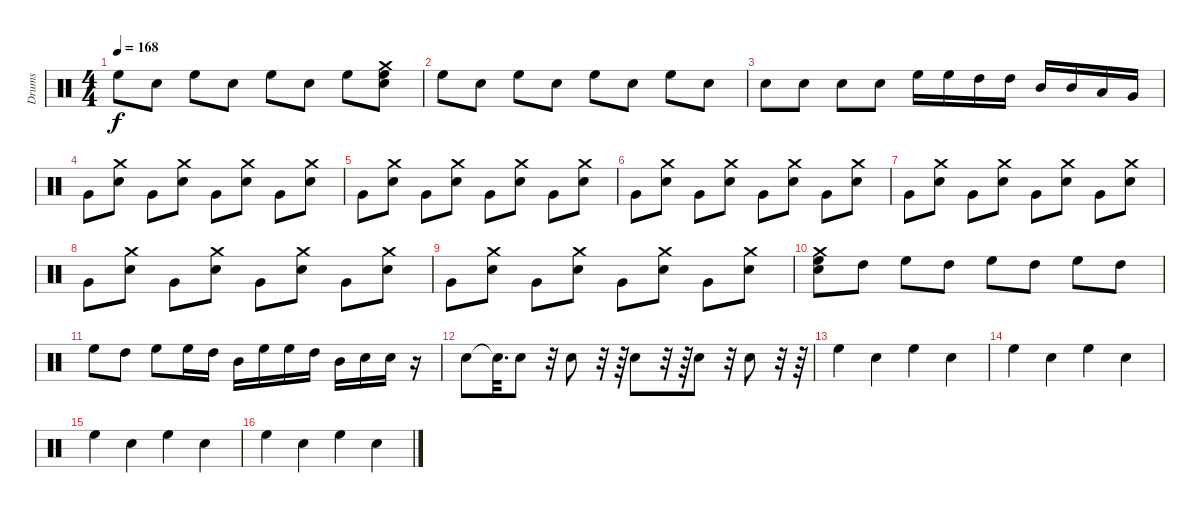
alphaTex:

\track ("Drums" "Drums") {instrument percussion}
\staff {score}
\articulation defaults
\ts (4 4)
\tempo 168
\clef neutral
\ks c "High Floor Tom (hit)".8{dy f} "Electric Snare (hit)".8 "High Floor Tom (hit)".8 "Electric Snare (hit)".8 "High Floor Tom (hit)".8 "Electric Snare (hit)".8 "High Floor Tom (hit)".8
("Electric Snare (hit)" "Crash medium (hit)" "High Floor Tom (hit)").8 |
"High Floor Tom (hit)".8 "Electric Snare (hit)".8 "High Floor Tom (hit)".8 "Electric Snare (hit)".8 "High Floor Tom (hit)".8 "Electric Snare (hit)".8 "High Floor Tom (hit)".8 "Electric Snare (hit)".8 |
"Electric Snare (hit)".8 "Electric Snare (hit)".8 "Electric Snare (hit)".8 "Electric Snare (hit)".8 "High Floor Tom (hit)".16 "High Floor Tom (hit)".16 "High Tom (hit)".16 "High Tom (hit)".16 "Mid Tom (hit)".16 "Mid Tom (hit)".16 "Low Tom (hit)".16 "Very Low Tom (hit)".16 |
"Very Low Tom (hit)".8 ("Crash medium (hit)" "Electric Snare (hit)").8 "Very Low Tom (hit)".8 ("Crash medium (hit)" "Electric Snare (hit)").8 "Very Low Tom (hit)".8 ("Crash medium (hit)" "Electric Snare (hit)").8 "Very Low Tom (hit)".8 ("Crash medium (hit)" "Electric Snare (hit)").8 |
"Very Low Tom (hit)".8 ("Electric Snare (hit)" "Crash medium (hit)").8 "Very Low Tom (hit)".8 ("Electric Snare (hit)" "Crash medium (hit)").8 "Very Low Tom (hit)".8 ("Electric Snare (hit)" "Crash medium (hit)").8 "Very Low Tom (hit)".8 ("Electric Snare (hit)" "Crash medium (hit)").8 |
"Very Low Tom (hit)".8 ("Crash medium (hit)" "Electric Snare (hit)").8 "Very Low Tom (hit)".8 ("Crash medium (hit)" "Electric Snare (hit)").8 "Very Low Tom (hit)".8 ("Crash medium (hit)" "Electric Snare (hit)").8 "Very Low Tom (hit)".8 ("Crash medium (hit)" "Electric Snare (hit)").8 |
"Very Low Tom (hit)".8 ("Electric Snare (hit)" "Crash medium (hit)").8 "Very Low Tom (hit)".8 ("Electric Snare (hit)" "Crash medium (hit)").8 "Very Low Tom (hit)".8 ("Electric Snare (hit)" "Crash medium (hit)").8 "Very Low Tom (hit)".8 ("Electric Snare (hit)" "Crash medium (hit)").8 |
"Very Low Tom (hit)".8 ("Crash medium (hit)" "Electric Snare (hit)").8 "Very Low Tom (hit)".8 ("Crash medium (hit)" "Electric Snare (hit)").8 "Very Low Tom (hit)".8 ("Crash medium (hit)" "Electric Snare (hit)").8 "Very Low Tom (hit)".8 ("Crash medium (hit)" "Electric Snare (hit)").8 |
"Very Low Tom (hit)".8 ("Electric Snare (hit)" "Crash medium (hit)").8 "Very Low Tom (hit)".8 ("Electric Snare (hit)" "Crash medium (hit)").8 "Very Low Tom (hit)".8 ("Electric Snare (hit)" "Crash medium (hit)").8 "Very Low Tom (hit)".8 ("Electric Snare (hit)" "Crash medium (hit)").8 |
("Electric Snare (hit)" "Crash medium (hit)" "High Floor Tom (hit)").8 "High Tom (hit)".8 "High Floor Tom (hit)".8 "High Tom (hit)".8 "High Floor Tom (hit)".8 "High Tom (hit)".8 "High Floor Tom (hit)".8 "High Tom (hit)".8 |
"High Floor Tom (hit)".8 "High Tom (hit)".8 "High Floor Tom (hit)".8 "High Floor Tom (hit)".16 "High Tom (hit)".16 "Mid Tom (hit)".16 "High Floor Tom (hit)".16 "High Floor Tom (hit)".16 "High Tom (hit)".16 "Mid Tom (hit)".16 "Electric Snare (hit)".16 "Electric Snare (hit)".16 r.16 |
"Electric Snare (hit)".8 "Snare (hit)"{t}.32{d} "Electric Snare (hit)".8 r.32 "Electric Snare (hit)".8 r.32 r.64 "Electric Snare (hit)".8 r.32 r.64 "Electric Snare (hit)".8 r.32 "Electric Snare (hit)".8 r.32 r.64 |
"High Floor Tom (hit)".4 "Electric Snare (hit)".4 "High Floor Tom (hit)".4 "Electric Snare (hit)".4 |
"High Floor Tom (hit)".4 "Electric Snare (hit)".4 "High Floor Tom (hit)".4 "Electric Snare (hit)".4 |
"High Floor Tom (hit)".4 "Electric Snare (hit)".4 "High Floor Tom (hit)".4 "Electric Snare (hit)".4 |
"High Floor Tom (hit)".4 "Electric Snare (hit)".4 "High Floor Tom (hit)".4 "Electric Snare (hit)".4
